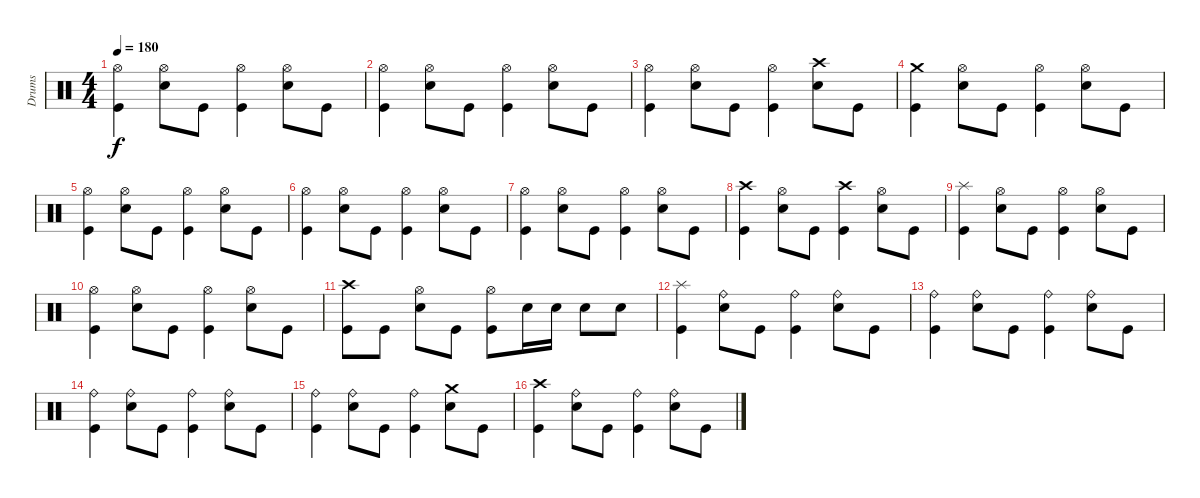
\track ("Drums" "Drums") {instrument percussion}
\staff {score}
\articulation defaults
\ts (4 4)
\tempo 180
\clef neutral
\ks c
("Hi-Hat (open)" "Kick (hit)").4{dy f} ("Hi-Hat (open)" "Electric Snare (hit)").8 "Kick (hit)".8 ("Hi-Hat (open)" "Kick (hit)").4 ("Hi-Hat (open)" "Electric Snare (hit)").8 "Kick (hit)".8 |
("Hi-Hat (open)" "Kick (hit)").4 ("Hi-Hat (open)" "Electric Snare (hit)").8 "Kick (hit)".8 ("Hi-Hat (open)" "Kick (hit)").4 ("Hi-Hat (open)" "Electric Snare (hit)").8 "Kick (hit)".8 |
("Hi-Hat (open)" "Kick (hit)").4 ("Hi-Hat (open)" "Electric Snare (hit)").8 "Kick (hit)".8 ("Hi-Hat (open)" "Kick (hit)").4 ("Crash high (hit)" "Electric Snare (hit)").8 "Kick (hit)".8 |
("Crash medium (hit)" "Kick (hit)").4 ("Hi-Hat (open)" "Electric Snare (hit)").8 "Kick (hit)".8 ("Hi-Hat (open)" "Kick (hit)").4 ("Hi-Hat (open)" "Electric Snare (hit)").8 "Kick (hit)".8 |
("Hi-Hat (open)" "Kick (hit)").4 ("Hi-Hat (open)" "Electric Snare (hit)").8 "Kick (hit)".8 ("Hi-Hat (open)" "Kick (hit)").4 ("Hi-Hat (open)" "Electric Snare (hit)").8 "Kick (hit)".8 |
("Hi-Hat (open)" "Kick (hit)").4 ("Hi-Hat (open)" "Electric Snare (hit)").8 "Kick (hit)".8 ("Hi-Hat (open)" "Kick (hit)").4 ("Hi-Hat (open)" "Electric Snare (hit)").8 "Kick (hit)".8 |
("Hi-Hat (open)" "Kick (hit)").4 ("Hi-Hat (open)" "Electric Snare (hit)").8 "Kick (hit)".8 ("Hi-Hat (open)" "Kick (hit)").4 ("Hi-Hat (open)" "Electric Snare (hit)").8 "Kick (hit)".8 |
("Crash high (hit)" "Kick (hit)").4 ("Hi-Hat (open)" "Electric Snare (hit)").8 "Kick (hit)".8 ("Crash high (hit)" "Kick (hit)").4 ("Hi-Hat (open)" "Electric Snare (hit)").8 "Kick (hit)".8 |
("Splash (hit)" "Kick (hit)").4 ("Hi-Hat (open)" "Electric Snare (hit)").8 "Kick (hit)".8 ("Hi-Hat (open)" "Kick (hit)").4 ("Hi-Hat (open)" "Electric Snare (hit)").8 "Kick (hit)".8 |
("Hi-Hat (open)" "Kick (hit)").4 ("Hi-Hat (open)" "Electric Snare (hit)").8 "Kick (hit)".8 ("Hi-Hat (open)" "Kick (hit)").4 ("Hi-Hat (open)" "Electric Snare (hit)").8 "Kick (hit)".8 |
("Crash high (hit)" "Kick (hit)").8 "Kick (hit)".8 ("Hi-Hat (open)" "Snare (hit) 2").8 "Kick (hit)".8 ("Hi-Hat (open)" "Kick (hit)").8 "Snare (hit) 2".16 "Snare (hit) 2".16 "Snare (hit) 2".8 "Snare (hit) 2".8 |
("Splash (hit)" "Kick (hit)").4 ("Ride (bell)" "Snare (hit) 2").8 "Kick (hit)".8 ("Ride (bell)" "Kick (hit)").4 ("Ride (bell)" "Snare (hit) 2").8 "Kick (hit)".8 |
("Ride (bell)" "Kick (hit)").4 ("Ride (bell)" "Snare (hit) 2").8 "Kick (hit)".8 ("Ride (bell)" "Kick (hit)").4 ("Ride (bell)" "Snare (hit) 2").8 "Kick (hit)".8 |
("Ride (bell)" "Kick (hit)").4 ("Ride (bell)" "Snare (hit) 2").8 "Kick (hit)".8 ("Ride (bell)" "Kick (hit)").4 ("Ride (bell)" "Snare (hit) 2").8 "Kick (hit)".8 |
("Ride (bell)" "Kick (hit)").4 ("Ride (bell)" "Snare (hit) 2").8 "Kick (hit)".8 ("Ride (bell)" "Kick (hit)").4 ("Crash medium (hit)" "Snare (hit) 2").8 "Kick (hit)".8 |
("Crash high (hit)" "Kick (hit)").4 ("Ride (bell)" "Snare (hit) 2").8 "Kick (hit)".8 ("Ride (bell)" "Kick (hit)").4 ("Ride (bell)" "Snare (hit) 2").8 "Kick (hit)".8
